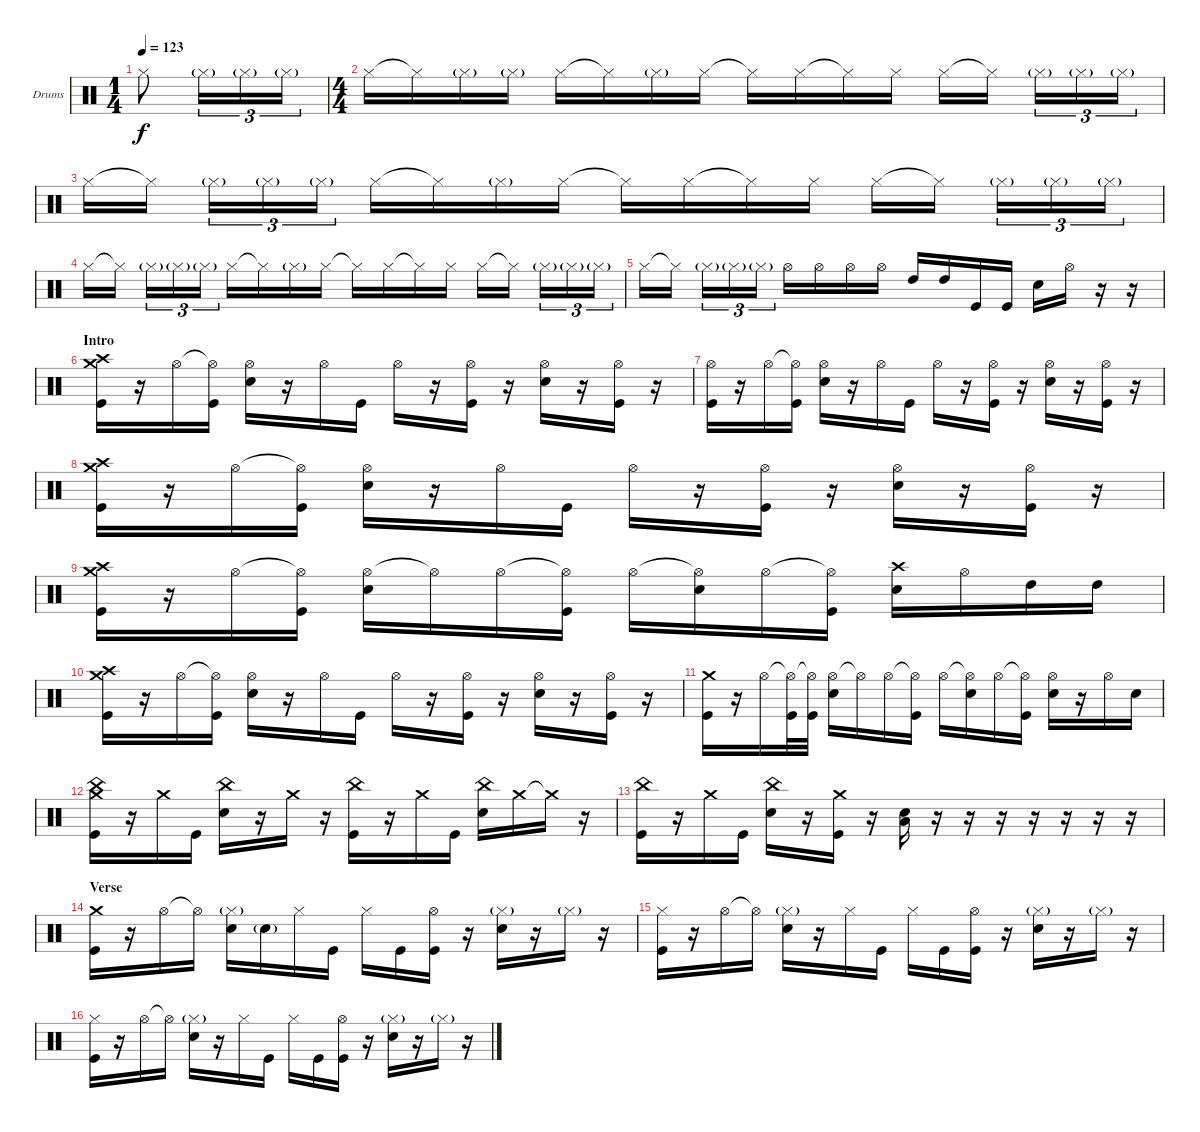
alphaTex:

\bracketExtendMode groupsimilarinstruments
\firstSystemTrackNameOrientation horizontal
\otherSystemsTrackNameOrientation horizontal
\track ("Drumkit" "Drums") {instrument percussion}
\staff {score}
\articulation defaults
\ts (1 4)
\tempo 123
\clef neutral
\ks c "Hi-Hat (closed)".8{dy f} "Hi-Hat (closed)"{g}.16{tu (3 2)} "Hi-Hat (closed)"{g}.16{tu (3 2)} "Hi-Hat (closed)"{g}.16{tu (3 2)}
|
\ts (4 4)
"Hi-Hat (closed)".16 "Hi-Hat (closed)"{t}.16 "Hi-Hat (closed)"{g}.16 "Hi-Hat (closed)"{g}.16 "Hi-Hat (closed)".16 "Hi-Hat (closed)"{t}.16 "Hi-Hat (closed)"{g}.16 "Hi-Hat (closed)".16 "Hi-Hat (closed)"{t}.16 "Hi-Hat (closed)".16 "Hi-Hat (closed)"{t}.16 "Hi-Hat (closed)".16 "Hi-Hat (closed)".16 "Hi-Hat (closed)"{t}.16 "Hi-Hat (closed)"{g}.16{tu (3 2)} "Hi-Hat (closed)"{g}.16{tu (3 2)} "Hi-Hat (closed)"{g}.16{tu (3 2)} |
"Hi-Hat (closed)".16 "Hi-Hat (closed)"{t}.16 "Hi-Hat (closed)"{g}.16{tu (3 2)} "Hi-Hat (closed)"{g}.16{tu (3 2)} "Hi-Hat (closed)"{g}.16{tu (3 2)} "Hi-Hat (closed)".16 "Hi-Hat (closed)"{t}.16 "Hi-Hat (closed)"{g}.16 "Hi-Hat (closed)".16 "Hi-Hat (closed)"{t}.16 "Hi-Hat (closed)".16 "Hi-Hat (closed)"{t}.16 "Hi-Hat (closed)".16 "Hi-Hat (closed)".16 "Hi-Hat (closed)"{t}.16 "Hi-Hat (closed)"{g}.16{tu (3 2)} "Hi-Hat (closed)"{g}.16{tu (3 2)} "Hi-Hat (closed)"{g}.16{tu (3 2)} |
"Hi-Hat (closed)".16 "Hi-Hat (closed)"{t}.16 "Hi-Hat (closed)"{g}.16{tu (3 2)} "Hi-Hat (closed)"{g}.16{tu (3 2)} "Hi-Hat (closed)"{g}.16{tu (3 2)} "Hi-Hat (closed)".16 "Hi-Hat (closed)"{t}.16 "Hi-Hat (closed)"{g}.16 "Hi-Hat (closed)".16 "Hi-Hat (closed)"{t}.16 "Hi-Hat (closed)".16 "Hi-Hat (closed)"{t}.16 "Hi-Hat (closed)".16 "Hi-Hat (closed)".16 "Hi-Hat (closed)"{t}.16 "Hi-Hat (closed)"{g}.16{tu (3 2)} "Hi-Hat (closed)"{g}.16{tu (3 2)} "Hi-Hat (closed)"{g}.16{tu (3 2)} |
"Hi-Hat (closed)".16 "Hi-Hat (closed)"{t}.16 "Hi-Hat (closed)"{g}.16{tu (3 2)} "Hi-Hat (closed)"{g}.16{tu (3 2)} "Hi-Hat (closed)"{g}.16{tu (3 2)} "Hi-Hat (open)".16 "Hi-Hat (open)".16 "Hi-Hat (open)".16 "Hi-Hat (open)".16 "High Tom (hit)".16 "High Tom (hit)".16 "Kick (hit)".16 "Kick (hit)".16 "Snare (hit) 2".16 "Hi-Hat (open)".16 r.16 r.16 |
\section ("" "Intro")
("Crash medium (hit)" "Crash high (hit)" "Kick (hit)").16 r.16 "Hi-Hat (open)".16 ("Hi-Hat (open)"{t} "Kick (hit)").16 ("Hi-Hat (open)" "Snare (hit) 2").16 r.16 "Hi-Hat (open)".16 "Kick (hit)".16 "Hi-Hat (open)".16 r.16 ("Hi-Hat (open)" "Kick (hit)").16 r.16 ("Hi-Hat (open)" "Snare (hit) 2").16 r.16 ("Hi-Hat (open)" "Kick (hit)").16 r.16 |
("Hi-Hat (open)" "Kick (hit)").16 r.16 "Hi-Hat (open)".16 ("Hi-Hat (open)"{t} "Kick (hit)").16 ("Hi-Hat (open)" "Snare (hit) 2").16 r.16 "Hi-Hat (open)".16 "Kick (hit)".16 "Hi-Hat (open)".16 r.16 ("Hi-Hat (open)" "Kick (hit)").16 r.16 ("Hi-Hat (open)" "Snare (hit) 2").16 r.16 ("Hi-Hat (open)" "Kick (hit)").16 r.16 |
("Crash medium (hit)" "Crash high (hit)" "Kick (hit)").16 r.16 "Hi-Hat (open)".16 ("Hi-Hat (open)"{t} "Kick (hit)").16 ("Hi-Hat (open)" "Snare (hit) 2").16 r.16 "Hi-Hat (open)".16 "Kick (hit)".16 "Hi-Hat (open)".16 r.16 ("Hi-Hat (open)" "Kick (hit)").16 r.16 ("Hi-Hat (open)" "Snare (hit) 2").16 r.16 ("Hi-Hat (open)" "Kick (hit)").16 r.16 |
("Crash medium (hit)" "Crash high (hit)" "Kick (hit)").16 r.16 "Hi-Hat (open)".16 ("Hi-Hat (open)"{t} "Kick (hit)").16 ("Hi-Hat (open)" "Snare (hit) 2").16 "Hi-Hat (open)"{t}.16 "Hi-Hat (open)".16 ("Hi-Hat (open)"{t} "Kick (hit)").16 "Hi-Hat (open)".16 ("Hi-Hat (open)"{t} "Snare (hit) 2").16 "Hi-Hat (open)".16 ("Hi-Hat (open)"{t} "Kick (hit)").16 ("Crash high (hit)" "Snare (hit) 2").16 "Hi-Hat (open)".16 "High Tom (hit)".16 "High Tom (hit)".16 |
("Crash medium (hit)" "Crash high (hit)" "Kick (hit)").16 r.16 "Hi-Hat (open)".16 ("Hi-Hat (open)"{t} "Kick (hit)").16 ("Hi-Hat (open)" "Snare (hit) 2").16 r.16 "Hi-Hat (open)".16 "Kick (hit)".16 "Hi-Hat (open)".16 r.16 ("Hi-Hat (open)" "Kick (hit)").16 r.16 ("Hi-Hat (open)" "Snare (hit) 2").16 r.16 ("Hi-Hat (open)" "Kick (hit)").16 r.16 |
("Crash medium (hit)" "Kick (hit)").16 r.16 "Hi-Hat (open)".16 ("Hi-Hat (open)"{t} "Kick (hit)").32 ("Hi-Hat (open)"{t} "Kick (hit)").32 ("Hi-Hat (open)" "Snare (hit) 2").16 "Hi-Hat (open)"{t}.16 "Hi-Hat (open)".16 ("Hi-Hat (open)"{t} "Kick (hit)").16 "Hi-Hat (open)".16 ("Hi-Hat (open)"{t} "Snare (hit) 2").16 "Hi-Hat (open)".16 ("Hi-Hat (open)"{t} "Kick (hit)").16 ("Hi-Hat (open)" "Snare (hit) 2").16 r.16 "Hi-Hat (open)".16 "Snare (hit) 2".16 |
("Crash medium (hit)" "China (hit)" "Kick (hit)").16 r.16 "Crash medium (hit)".16 "Kick (hit)".16 ("China (hit)" "Snare (hit) 2").16 r.16 "Crash medium (hit)".16 r.16 ("China (hit)" "Kick (hit)").16 r.16 "Crash medium (hit)".16 "Kick (hit)".16 ("China (hit)" "Snare (hit) 2").16 "Crash medium (hit)".16 "Crash medium (hit)"{t}.16 r.16 |
("China (hit)" "Kick (hit)").16 r.16 "Crash medium (hit)".16 "Kick (hit)".16 ("China (hit)" "Snare (hit) 2").16 r.16 ("Crash medium (hit)" "Kick (hit)").16 r.16 ("Snare (hit) 2" "Low Tom (hit)").16 r.16 r.16 r.16 r.16 r.16 r.16 r.16 |
\section ("" "Verse")
("Crash medium (hit)" "Kick (hit)").16 r.16 "Hi-Hat (open)".16 "Hi-Hat (open)"{t}.16 ("Hi-Hat (closed)"{g} "Snare (hit) 2").16 "Snare (hit) 2"{g}.16 "Hi-Hat (closed)".16 "Kick (hit)".16 "Hi-Hat (closed)".16 "Kick (hit)".16 ("Hi-Hat (open)" "Kick (hit)").16 r.16 ("Hi-Hat (closed)"{g} "Snare (hit) 2").16 r.16 "Hi-Hat (closed)"{g}.16 r.16 |
("Hi-Hat (closed)" "Kick (hit)").16 r.16 "Hi-Hat (open)".16 "Hi-Hat (open)"{t}.16 ("Hi-Hat (closed)"{g} "Snare (hit) 2").16 r.16 "Hi-Hat (closed)".16 "Kick (hit)".16 "Hi-Hat (closed)".16 "Kick (hit)".16 ("Hi-Hat (open)" "Kick (hit)").16 r.16 ("Hi-Hat (closed)"{g} "Snare (hit) 2").16 r.16 "Hi-Hat (closed)"{g}.16 r.16 |
("Hi-Hat (closed)" "Kick (hit)").16 r.16 "Hi-Hat (open)".16 "Hi-Hat (open)"{t}.16 ("Hi-Hat (closed)"{g} "Snare (hit) 2").16 r.16 "Hi-Hat (closed)".16 "Kick (hit)".16 "Hi-Hat (closed)".16 "Kick (hit)".16 ("Hi-Hat (open)" "Kick (hit)").16 r.16 ("Hi-Hat (closed)"{g} "Snare (hit) 2").16 r.16 "Hi-Hat (closed)"{g}.16 r.16
